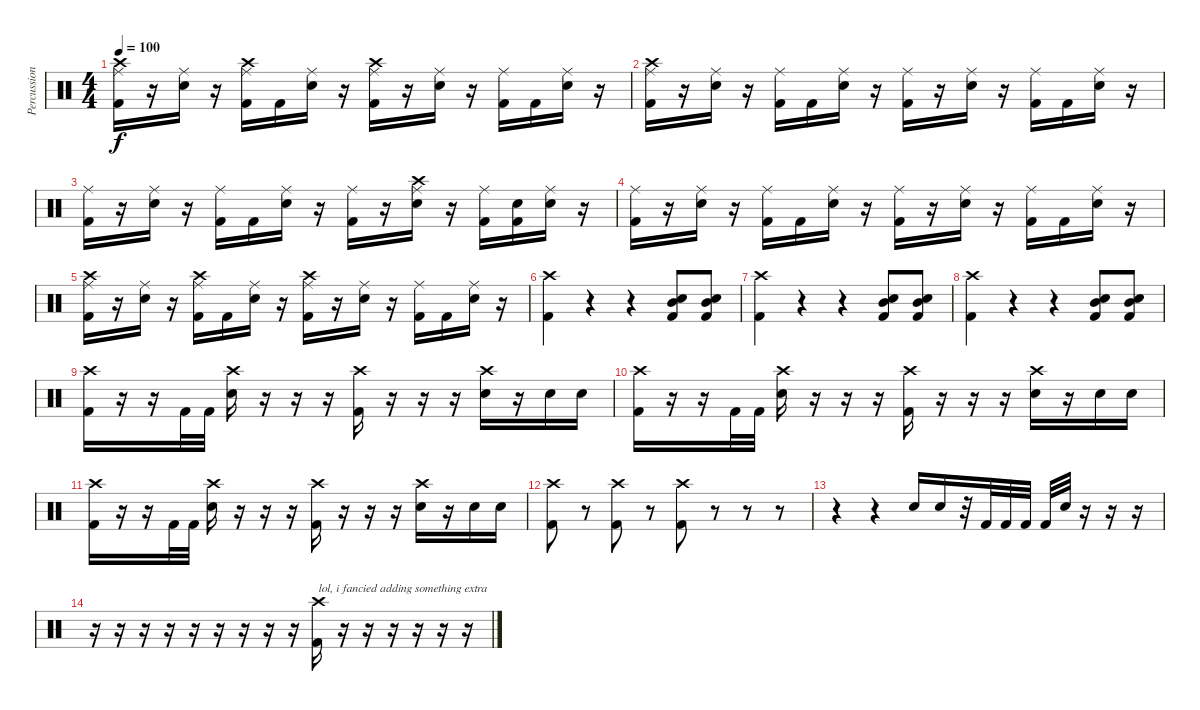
\track ("Percussion" "Percussion") {instrument percussion}
\staff {score}
\articulation defaults
\ts (4 4)
\tempo 100
\clef neutral
\ks c
("Crash high (hit)" "Ride (middle)" "Kick (hit) 2").16{dy f} r.16 ("Ride (middle)" "Snare (hit) 2").16 r.16 ("Crash high (hit)" "Ride (middle)" "Kick (hit) 2").16 "Kick (hit) 2".16 ("Ride (middle)" "Snare (hit) 2").16 r.16 ("Crash high (hit)" "Ride (middle)" "Kick (hit) 2").16 r.16 ("Ride (middle)" "Snare (hit) 2").16 r.16 ("Ride (middle)" "Kick (hit) 2").16 "Kick (hit) 2".16 ("Ride (middle)" "Snare (hit) 2").16 r.16 |
("Crash high (hit)" "Ride (middle)" "Kick (hit) 2").16 r.16 ("Ride (middle)" "Snare (hit) 2").16 r.16 ("Ride (middle)" "Kick (hit) 2").16 "Kick (hit) 2".16 ("Ride (middle)" "Snare (hit) 2").16 r.16 ("Ride (middle)" "Kick (hit) 2").16 r.16 ("Ride (middle)" "Snare (hit) 2").16 r.16 ("Ride (middle)" "Kick (hit) 2").16 "Kick (hit) 2".16 ("Ride (middle)" "Snare (hit) 2").16 r.16 |
("Ride (middle)" "Kick (hit) 2").16 r.16 ("Ride (middle)" "Snare (hit) 2").16 r.16 ("Ride (middle)" "Kick (hit) 2").16 "Kick (hit) 2".16 ("Ride (middle)" "Snare (hit) 2").16 r.16 ("Ride (middle)" "Kick (hit) 2").16 r.16 ("Crash high (hit)" "Ride (middle)" "Snare (hit) 2").16 r.16 ("Ride (middle)" "Kick (hit) 2").16 ("Snare (hit) 2" "Kick (hit) 2").16 ("Ride (middle)" "Snare (hit) 2").16 r.16 |
("Ride (middle)" "Kick (hit) 2").16 r.16 ("Ride (middle)" "Snare (hit) 2").16 r.16 ("Ride (middle)" "Kick (hit) 2").16 "Kick (hit) 2".16 ("Ride (middle)" "Snare (hit) 2").16 r.16 ("Ride (middle)" "Kick (hit) 2").16 r.16 ("Ride (middle)" "Snare (hit) 2").16 r.16 ("Ride (middle)" "Kick (hit) 2").16 "Kick (hit) 2".16 ("Ride (middle)" "Snare (hit) 2").16 r.16 |
("Crash high (hit)" "Ride (middle)" "Kick (hit) 2").16 r.16 ("Ride (middle)" "Snare (hit) 2").16 r.16 ("Crash high (hit)" "Ride (middle)" "Kick (hit) 2").16 "Kick (hit) 2".16 ("Ride (middle)" "Snare (hit) 2").16 r.16 ("Crash high (hit)" "Ride (middle)" "Kick (hit) 2").16 r.16 ("Ride (middle)" "Snare (hit) 2").16 r.16 ("Ride (middle)" "Kick (hit) 2").16 "Kick (hit) 2".16 ("Ride (middle)" "Snare (hit) 2").16 r.16 |
("Crash high (hit)" "Kick (hit) 2").4 r.4 r.4 ("Mid Tom (hit)" "Snare (hit) 2" "Kick (hit) 2").8 ("Mid Tom (hit)" "Snare (hit) 2" "Kick (hit) 2").8 |
("Crash high (hit)" "Kick (hit) 2").4 r.4 r.4 ("Mid Tom (hit)" "Snare (hit) 2" "Kick (hit) 2").8 ("Mid Tom (hit)" "Snare (hit) 2" "Kick (hit) 2").8 |
("Crash high (hit)" "Kick (hit) 2").4 r.4 r.4 ("Mid Tom (hit)" "Snare (hit) 2" "Kick (hit) 2").8 ("Mid Tom (hit)" "Snare (hit) 2" "Kick (hit) 2").8 |
("Crash high (hit)" "Kick (hit) 2").16 r.16 r.16 "Kick (hit) 2".32 "Kick (hit) 2".32 ("Crash high (hit)" "Snare (hit) 2").16 r.16 r.16 r.16 ("Crash high (hit)" "Kick (hit) 2").16 r.16 r.16 r.16 ("Crash high (hit)" "Snare (hit) 2").16 r.16 "Snare (hit) 2".16 "Snare (hit) 2".16 |
("Crash high (hit)" "Kick (hit) 2").16 r.16 r.16 "Kick (hit) 2".32 "Kick (hit) 2".32 ("Crash high (hit)" "Snare (hit) 2").16 r.16 r.16 r.16 ("Crash high (hit)" "Kick (hit) 2").16 r.16 r.16 r.16 ("Crash high (hit)" "Snare (hit) 2").16 r.16 "Snare (hit) 2".16 "Snare (hit) 2".16 |
("Crash high (hit)" "Kick (hit) 2").16 r.16 r.16 "Kick (hit) 2".32 "Kick (hit) 2".32 ("Crash high (hit)" "Snare (hit) 2").16 r.16 r.16 r.16 ("Crash high (hit)" "Kick (hit) 2").16 r.16 r.16 r.16 ("Crash high (hit)" "Snare (hit) 2").16 r.16 "Snare (hit) 2".16 "Snare (hit) 2".16 |
("Crash high (hit)" "Kick (hit) 2").8 r.8 ("Crash high (hit)" "Kick (hit) 2").8 r.8 ("Crash high (hit)" "Kick (hit) 2").8 r.8 r.8 r.8 |
r.4 r.4 "Snare (hit) 2".16 "Snare (hit) 2".16 r.32 "Kick (hit) 2".32 "Kick (hit) 2".32 "Kick (hit) 2".32 "Kick (hit) 2".32 "Snare (hit) 2".32 r.16 r.16 r.16 |
r.16 r.16 r.16 r.16 r.16 r.16 r.16 r.16 r.16 ("Crash high (hit)" "Kick (hit) 2").16{txt "lol, i fancied adding something extra"} r.16 r.16 r.16 r.16 r.16 r.16
